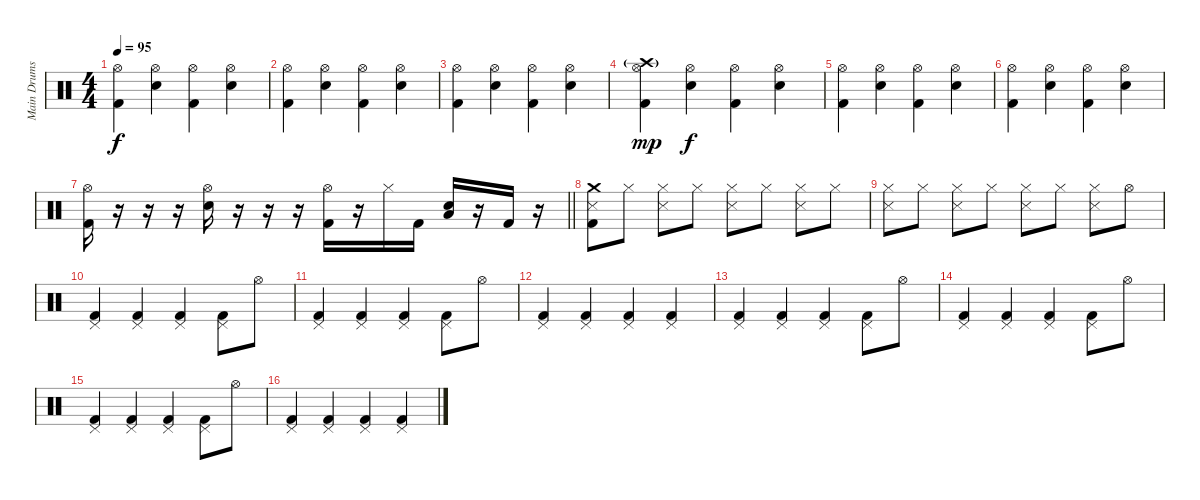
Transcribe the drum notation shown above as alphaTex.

\track ("Main Drums" "Main Drums") {instrument percussion}
\staff {score}
\articulation defaults
\ts (4 4)
\tempo 95
\clef neutral
\ks c
("Hi-Hat (open)" "Kick (hit) 2").4{dy f} ("Hi-Hat (open)" "Electric Snare (hit)").4 ("Hi-Hat (open)" "Kick (hit) 2").4 ("Hi-Hat (open)" "Electric Snare (hit)").4 |
("Hi-Hat (open)" "Kick (hit) 2").4 ("Hi-Hat (open)" "Electric Snare (hit)").4 ("Hi-Hat (open)" "Kick (hit) 2").4 ("Hi-Hat (open)" "Electric Snare (hit)").4 |
("Hi-Hat (open)" "Kick (hit) 2").4 ("Hi-Hat (open)" "Electric Snare (hit)").4 ("Hi-Hat (open)" "Kick (hit) 2").4 ("Hi-Hat (open)" "Electric Snare (hit)").4 |
("Crash high (hit)"{g} "Hi-Hat (open)" "Kick (hit) 2").4{dy mp} ("Hi-Hat (open)" "Electric Snare (hit)").4{dy f} ("Hi-Hat (open)" "Kick (hit) 2").4 ("Hi-Hat (open)" "Electric Snare (hit)").4 |
("Hi-Hat (open)" "Kick (hit) 2").4 ("Hi-Hat (open)" "Electric Snare (hit)").4 ("Hi-Hat (open)" "Kick (hit) 2").4 ("Hi-Hat (open)" "Electric Snare (hit)").4 |
("Hi-Hat (open)" "Kick (hit) 2").4 ("Hi-Hat (open)" "Electric Snare (hit)").4 ("Hi-Hat (open)" "Kick (hit) 2").4 ("Hi-Hat (open)" "Electric Snare (hit)").4 |
\barLineRight lightlight
("Hi-Hat (open)" "Kick (hit) 2").16 r.16 r.16 r.16 ("Hi-Hat (open)" "Electric Snare (hit)").16 r.16 r.16 r.16 ("Hi-Hat (open)" "Kick (hit) 2").16 r.16 "Hi-Hat (closed)".16 "Kick (hit) 2".16 ("Low Floor Tom (hit)" "Electric Snare (hit)").16 r.16 "Kick (hit) 2".16 r.16 |
("Crash medium (hit)" "Snare (side stick) 3" "Kick (hit) 2").8 "Hi-Hat (closed)".8 ("Hi-Hat (closed)" "Snare (side stick) 3").8 "Hi-Hat (closed)".8 ("Hi-Hat (closed)" "Snare (side stick) 3").8 "Hi-Hat (closed)".8 ("Hi-Hat (closed)" "Snare (side stick) 3").8 "Hi-Hat (closed)".8 |
("Hi-Hat (closed)" "Snare (side stick) 3").8 "Hi-Hat (closed)".8 ("Hi-Hat (closed)" "Snare (side stick) 3").8 "Hi-Hat (closed)".8 ("Hi-Hat (closed)" "Snare (side stick) 3").8 "Hi-Hat (closed)".8 ("Hi-Hat (closed)" "Snare (side stick) 3").8 "Hi-Hat (open)".8 |
("Pedal Hi-Hat (hit)" "Kick (hit) 2").4 ("Pedal Hi-Hat (hit)" "Kick (hit) 2").4 ("Pedal Hi-Hat (hit)" "Kick (hit) 2").4 ("Pedal Hi-Hat (hit)" "Kick (hit) 2").8 "Hi-Hat (open)".8 |
("Pedal Hi-Hat (hit)" "Kick (hit) 2").4 ("Pedal Hi-Hat (hit)" "Kick (hit) 2").4 ("Pedal Hi-Hat (hit)" "Kick (hit) 2").4 ("Pedal Hi-Hat (hit)" "Kick (hit) 2").8 "Hi-Hat (open)".8 |
("Pedal Hi-Hat (hit)" "Kick (hit) 2").4 ("Pedal Hi-Hat (hit)" "Kick (hit) 2").4 ("Pedal Hi-Hat (hit)" "Kick (hit) 2").4 ("Pedal Hi-Hat (hit)" "Kick (hit) 2").4 |
("Pedal Hi-Hat (hit)" "Kick (hit) 2").4 ("Pedal Hi-Hat (hit)" "Kick (hit) 2").4 ("Pedal Hi-Hat (hit)" "Kick (hit) 2").4 ("Pedal Hi-Hat (hit)" "Kick (hit) 2").8 "Hi-Hat (open)".8 |
("Pedal Hi-Hat (hit)" "Kick (hit) 2").4 ("Pedal Hi-Hat (hit)" "Kick (hit) 2").4 ("Pedal Hi-Hat (hit)" "Kick (hit) 2").4 ("Pedal Hi-Hat (hit)" "Kick (hit) 2").8 "Hi-Hat (open)".8 |
("Pedal Hi-Hat (hit)" "Kick (hit) 2").4 ("Pedal Hi-Hat (hit)" "Kick (hit) 2").4 ("Pedal Hi-Hat (hit)" "Kick (hit) 2").4 ("Pedal Hi-Hat (hit)" "Kick (hit) 2").8 "Hi-Hat (open)".8 |
("Pedal Hi-Hat (hit)" "Kick (hit) 2").4 ("Pedal Hi-Hat (hit)" "Kick (hit) 2").4 ("Pedal Hi-Hat (hit)" "Kick (hit) 2").4 ("Pedal Hi-Hat (hit)" "Kick (hit) 2").4
